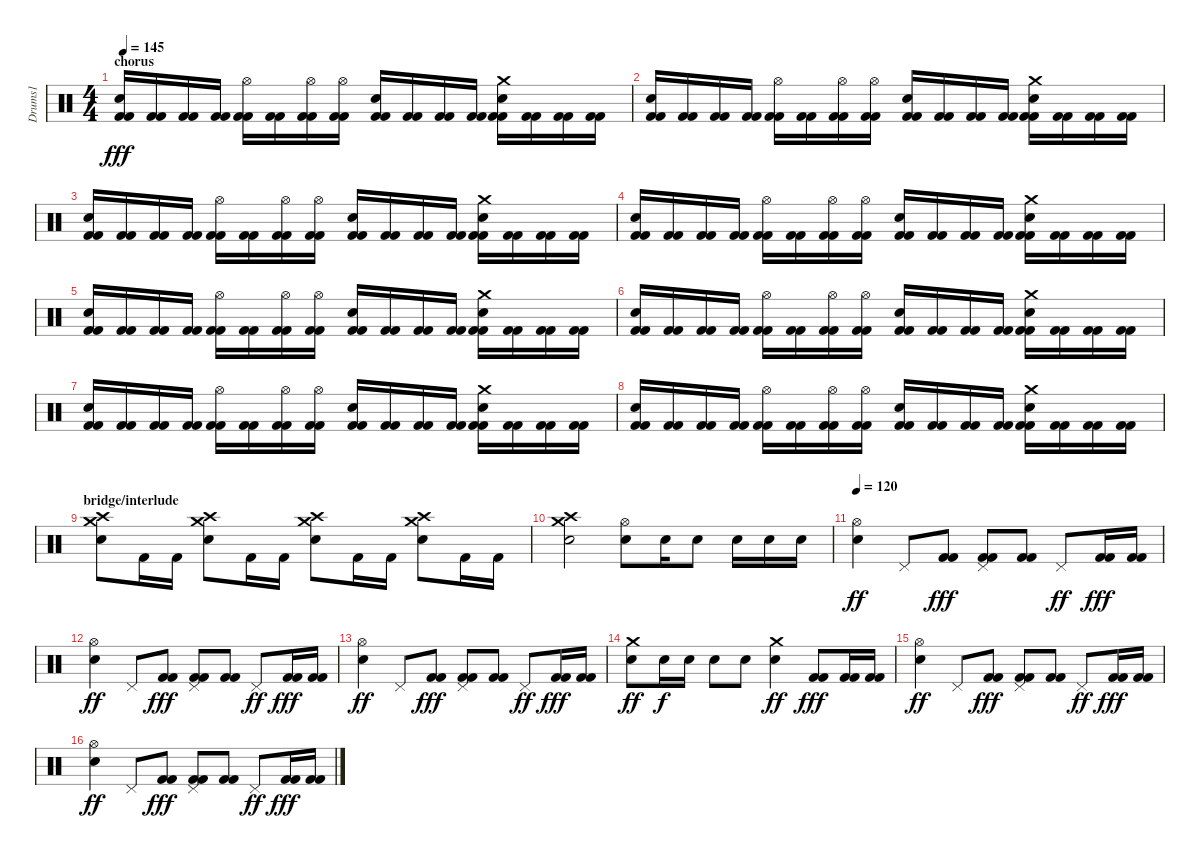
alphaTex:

\track ("Drums1" "Drums1") {instrument percussion}
\staff {score}
\articulation defaults
\ts (4 4)
\section ("" "chorus")
\tempo 145
\clef neutral
\ks c
("Electric Snare (hit)" "Kick (hit) 2" "Kick (hit) 2").16{dy fff} ("Kick (hit) 2" "Kick (hit) 2").16 ("Kick (hit) 2" "Kick (hit) 2").16 ("Kick (hit) 2" "Kick (hit) 2").16 ("Hi-Hat (open)" "Kick (hit) 2" "Kick (hit) 2").16 ("Kick (hit) 2" "Kick (hit) 2").16 ("Hi-Hat (open)" "Kick (hit) 2" "Kick (hit) 2").16 ("Hi-Hat (open)" "Kick (hit) 2" "Kick (hit) 2").16 ("Electric Snare (hit)" "Kick (hit) 2" "Kick (hit) 2").16 ("Kick (hit) 2" "Kick (hit) 2").16 ("Kick (hit) 2" "Kick (hit) 2").16 ("Kick (hit) 2" "Kick (hit) 2").16 ("Electric Snare (hit)" "Crash medium (hit)" "Kick (hit) 2" "Kick (hit) 2").16 ("Kick (hit) 2" "Kick (hit) 2").16 ("Kick (hit) 2" "Kick (hit) 2").16 ("Kick (hit) 2" "Kick (hit) 2").16 |
("Electric Snare (hit)" "Kick (hit) 2" "Kick (hit) 2").16 ("Kick (hit) 2" "Kick (hit) 2").16 ("Kick (hit) 2" "Kick (hit) 2").16 ("Kick (hit) 2" "Kick (hit) 2").16 ("Hi-Hat (open)" "Kick (hit) 2" "Kick (hit) 2").16 ("Kick (hit) 2" "Kick (hit) 2").16 ("Hi-Hat (open)" "Kick (hit) 2" "Kick (hit) 2").16 ("Hi-Hat (open)" "Kick (hit) 2" "Kick (hit) 2").16 ("Electric Snare (hit)" "Kick (hit) 2" "Kick (hit) 2").16 ("Kick (hit) 2" "Kick (hit) 2").16 ("Kick (hit) 2" "Kick (hit) 2").16 ("Kick (hit) 2" "Kick (hit) 2").16 ("Electric Snare (hit)" "Crash medium (hit)" "Kick (hit) 2" "Kick (hit) 2").16 ("Kick (hit) 2" "Kick (hit) 2").16 ("Kick (hit) 2" "Kick (hit) 2").16 ("Kick (hit) 2" "Kick (hit) 2").16 |
("Electric Snare (hit)" "Kick (hit) 2" "Kick (hit) 2").16 ("Kick (hit) 2" "Kick (hit) 2").16 ("Kick (hit) 2" "Kick (hit) 2").16 ("Kick (hit) 2" "Kick (hit) 2").16 ("Hi-Hat (open)" "Kick (hit) 2" "Kick (hit) 2").16 ("Kick (hit) 2" "Kick (hit) 2").16 ("Hi-Hat (open)" "Kick (hit) 2" "Kick (hit) 2").16 ("Hi-Hat (open)" "Kick (hit) 2" "Kick (hit) 2").16 ("Electric Snare (hit)" "Kick (hit) 2" "Kick (hit) 2").16 ("Kick (hit) 2" "Kick (hit) 2").16 ("Kick (hit) 2" "Kick (hit) 2").16 ("Kick (hit) 2" "Kick (hit) 2").16 ("Electric Snare (hit)" "Crash medium (hit)" "Kick (hit) 2" "Kick (hit) 2").16 ("Kick (hit) 2" "Kick (hit) 2").16 ("Kick (hit) 2" "Kick (hit) 2").16 ("Kick (hit) 2" "Kick (hit) 2").16 |
("Electric Snare (hit)" "Kick (hit) 2" "Kick (hit) 2").16 ("Kick (hit) 2" "Kick (hit) 2").16 ("Kick (hit) 2" "Kick (hit) 2").16 ("Kick (hit) 2" "Kick (hit) 2").16 ("Hi-Hat (open)" "Kick (hit) 2" "Kick (hit) 2").16 ("Kick (hit) 2" "Kick (hit) 2").16 ("Hi-Hat (open)" "Kick (hit) 2" "Kick (hit) 2").16 ("Hi-Hat (open)" "Kick (hit) 2" "Kick (hit) 2").16 ("Electric Snare (hit)" "Kick (hit) 2" "Kick (hit) 2").16 ("Kick (hit) 2" "Kick (hit) 2").16 ("Kick (hit) 2" "Kick (hit) 2").16 ("Kick (hit) 2" "Kick (hit) 2").16 ("Electric Snare (hit)" "Crash medium (hit)" "Kick (hit) 2" "Kick (hit) 2").16 ("Kick (hit) 2" "Kick (hit) 2").16 ("Kick (hit) 2" "Kick (hit) 2").16 ("Kick (hit) 2" "Kick (hit) 2").16 |
("Electric Snare (hit)" "Kick (hit) 2" "Kick (hit) 2").16 ("Kick (hit) 2" "Kick (hit) 2").16 ("Kick (hit) 2" "Kick (hit) 2").16 ("Kick (hit) 2" "Kick (hit) 2").16 ("Hi-Hat (open)" "Kick (hit) 2" "Kick (hit) 2").16 ("Kick (hit) 2" "Kick (hit) 2").16 ("Hi-Hat (open)" "Kick (hit) 2" "Kick (hit) 2").16 ("Hi-Hat (open)" "Kick (hit) 2" "Kick (hit) 2").16 ("Electric Snare (hit)" "Kick (hit) 2" "Kick (hit) 2").16 ("Kick (hit) 2" "Kick (hit) 2").16 ("Kick (hit) 2" "Kick (hit) 2").16 ("Kick (hit) 2" "Kick (hit) 2").16 ("Electric Snare (hit)" "Crash medium (hit)" "Kick (hit) 2" "Kick (hit) 2").16 ("Kick (hit) 2" "Kick (hit) 2").16 ("Kick (hit) 2" "Kick (hit) 2").16 ("Kick (hit) 2" "Kick (hit) 2").16 |
("Electric Snare (hit)" "Kick (hit) 2" "Kick (hit) 2").16 ("Kick (hit) 2" "Kick (hit) 2").16 ("Kick (hit) 2" "Kick (hit) 2").16 ("Kick (hit) 2" "Kick (hit) 2").16 ("Hi-Hat (open)" "Kick (hit) 2" "Kick (hit) 2").16 ("Kick (hit) 2" "Kick (hit) 2").16 ("Hi-Hat (open)" "Kick (hit) 2" "Kick (hit) 2").16 ("Hi-Hat (open)" "Kick (hit) 2" "Kick (hit) 2").16 ("Electric Snare (hit)" "Kick (hit) 2" "Kick (hit) 2").16 ("Kick (hit) 2" "Kick (hit) 2").16 ("Kick (hit) 2" "Kick (hit) 2").16 ("Kick (hit) 2" "Kick (hit) 2").16 ("Electric Snare (hit)" "Crash medium (hit)" "Kick (hit) 2" "Kick (hit) 2").16 ("Kick (hit) 2" "Kick (hit) 2").16 ("Kick (hit) 2" "Kick (hit) 2").16 ("Kick (hit) 2" "Kick (hit) 2").16 |
("Electric Snare (hit)" "Kick (hit) 2" "Kick (hit) 2").16 ("Kick (hit) 2" "Kick (hit) 2").16 ("Kick (hit) 2" "Kick (hit) 2").16 ("Kick (hit) 2" "Kick (hit) 2").16 ("Hi-Hat (open)" "Kick (hit) 2" "Kick (hit) 2").16 ("Kick (hit) 2" "Kick (hit) 2").16 ("Hi-Hat (open)" "Kick (hit) 2" "Kick (hit) 2").16 ("Hi-Hat (open)" "Kick (hit) 2" "Kick (hit) 2").16 ("Electric Snare (hit)" "Kick (hit) 2" "Kick (hit) 2").16 ("Kick (hit) 2" "Kick (hit) 2").16 ("Kick (hit) 2" "Kick (hit) 2").16 ("Kick (hit) 2" "Kick (hit) 2").16 ("Electric Snare (hit)" "Crash medium (hit)" "Kick (hit) 2" "Kick (hit) 2").16 ("Kick (hit) 2" "Kick (hit) 2").16 ("Kick (hit) 2" "Kick (hit) 2").16 ("Kick (hit) 2" "Kick (hit) 2").16 |
("Electric Snare (hit)" "Kick (hit) 2" "Kick (hit) 2").16 ("Kick (hit) 2" "Kick (hit) 2").16 ("Kick (hit) 2" "Kick (hit) 2").16 ("Kick (hit) 2" "Kick (hit) 2").16 ("Hi-Hat (open)" "Kick (hit) 2" "Kick (hit) 2").16 ("Kick (hit) 2" "Kick (hit) 2").16 ("Hi-Hat (open)" "Kick (hit) 2" "Kick (hit) 2").16 ("Hi-Hat (open)" "Kick (hit) 2" "Kick (hit) 2").16 ("Electric Snare (hit)" "Kick (hit) 2" "Kick (hit) 2").16 ("Kick (hit) 2" "Kick (hit) 2").16 ("Kick (hit) 2" "Kick (hit) 2").16 ("Kick (hit) 2" "Kick (hit) 2").16 ("Electric Snare (hit)" "Crash medium (hit)" "Kick (hit) 2" "Kick (hit) 2").16 ("Kick (hit) 2" "Kick (hit) 2").16 ("Kick (hit) 2" "Kick (hit) 2").16 ("Kick (hit) 2" "Kick (hit) 2").16 |
\section ("" "bridge/interlude")
("Crash high (hit)" "Crash medium (hit)" "Electric Snare (hit)").8 "Kick (hit) 2".16 "Kick (hit) 2".16 ("Crash high (hit)" "Crash medium (hit)" "Electric Snare (hit)").8 "Kick (hit) 2".16 "Kick (hit) 2".16 ("Crash high (hit)" "Crash medium (hit)" "Electric Snare (hit)").8 "Kick (hit) 2".16 "Kick (hit) 2".16 ("Crash high (hit)" "Crash medium (hit)" "Electric Snare (hit)").8 "Kick (hit) 2".16 "Kick (hit) 2".16 |
("Crash high (hit)" "Crash medium (hit)" "Electric Snare (hit)").2 ("Hi-Hat (open)" "Electric Snare (hit)").8 "Electric Snare (hit)".16 "Electric Snare (hit)".8 "Electric Snare (hit)".16 "Electric Snare (hit)".16 "Electric Snare (hit)".16 |
\tempo 120
("Hi-Hat (open)" "Electric Snare (hit)").4{dy ff} "Pedal Hi-Hat (hit)".8 ("Kick (hit) 2" "Kick (hit) 2").8{dy fff} ("Pedal Hi-Hat (hit)" "Kick (hit) 2" "Kick (hit) 2").8 ("Kick (hit) 2" "Kick (hit) 2").8 "Pedal Hi-Hat (hit)".8{dy ff} ("Kick (hit) 2" "Kick (hit) 2").16{dy fff} ("Kick (hit) 2" "Kick (hit) 2").16 |
("Hi-Hat (open)" "Electric Snare (hit)").4{dy ff} "Pedal Hi-Hat (hit)".8 ("Kick (hit) 2" "Kick (hit) 2").8{dy fff} ("Pedal Hi-Hat (hit)" "Kick (hit) 2" "Kick (hit) 2").8 ("Kick (hit) 2" "Kick (hit) 2").8 "Pedal Hi-Hat (hit)".8{dy ff} ("Kick (hit) 2" "Kick (hit) 2").16{dy fff} ("Kick (hit) 2" "Kick (hit) 2").16 |
("Hi-Hat (open)" "Electric Snare (hit)").4{dy ff} "Pedal Hi-Hat (hit)".8 ("Kick (hit) 2" "Kick (hit) 2").8{dy fff} ("Pedal Hi-Hat (hit)" "Kick (hit) 2" "Kick (hit) 2").8 ("Kick (hit) 2" "Kick (hit) 2").8 "Pedal Hi-Hat (hit)".8{dy ff} ("Kick (hit) 2" "Kick (hit) 2").16{dy fff} ("Kick (hit) 2" "Kick (hit) 2").16 |
("Electric Snare (hit)" "Crash medium (hit)").8{dy ff} "Electric Snare (hit)".16{dy f} "Electric Snare (hit)".16 "Electric Snare (hit)".8 "Electric Snare (hit)".8 ("Electric Snare (hit)" "Crash medium (hit)").4{dy ff} ("Kick (hit) 2" "Kick (hit) 2").8{dy fff} ("Kick (hit) 2" "Kick (hit) 2").16 ("Kick (hit) 2" "Kick (hit) 2").16 |
("Hi-Hat (open)" "Electric Snare (hit)").4{dy ff} "Pedal Hi-Hat (hit)".8 ("Kick (hit) 2" "Kick (hit) 2").8{dy fff} ("Pedal Hi-Hat (hit)" "Kick (hit) 2" "Kick (hit) 2").8 ("Kick (hit) 2" "Kick (hit) 2").8 "Pedal Hi-Hat (hit)".8{dy ff} ("Kick (hit) 2" "Kick (hit) 2").16{dy fff} ("Kick (hit) 2" "Kick (hit) 2").16 |
("Hi-Hat (open)" "Electric Snare (hit)").4{dy ff} "Pedal Hi-Hat (hit)".8 ("Kick (hit) 2" "Kick (hit) 2").8{dy fff} ("Pedal Hi-Hat (hit)" "Kick (hit) 2" "Kick (hit) 2").8 ("Kick (hit) 2" "Kick (hit) 2").8 "Pedal Hi-Hat (hit)".8{dy ff} ("Kick (hit) 2" "Kick (hit) 2").16{dy fff} ("Kick (hit) 2" "Kick (hit) 2").16
